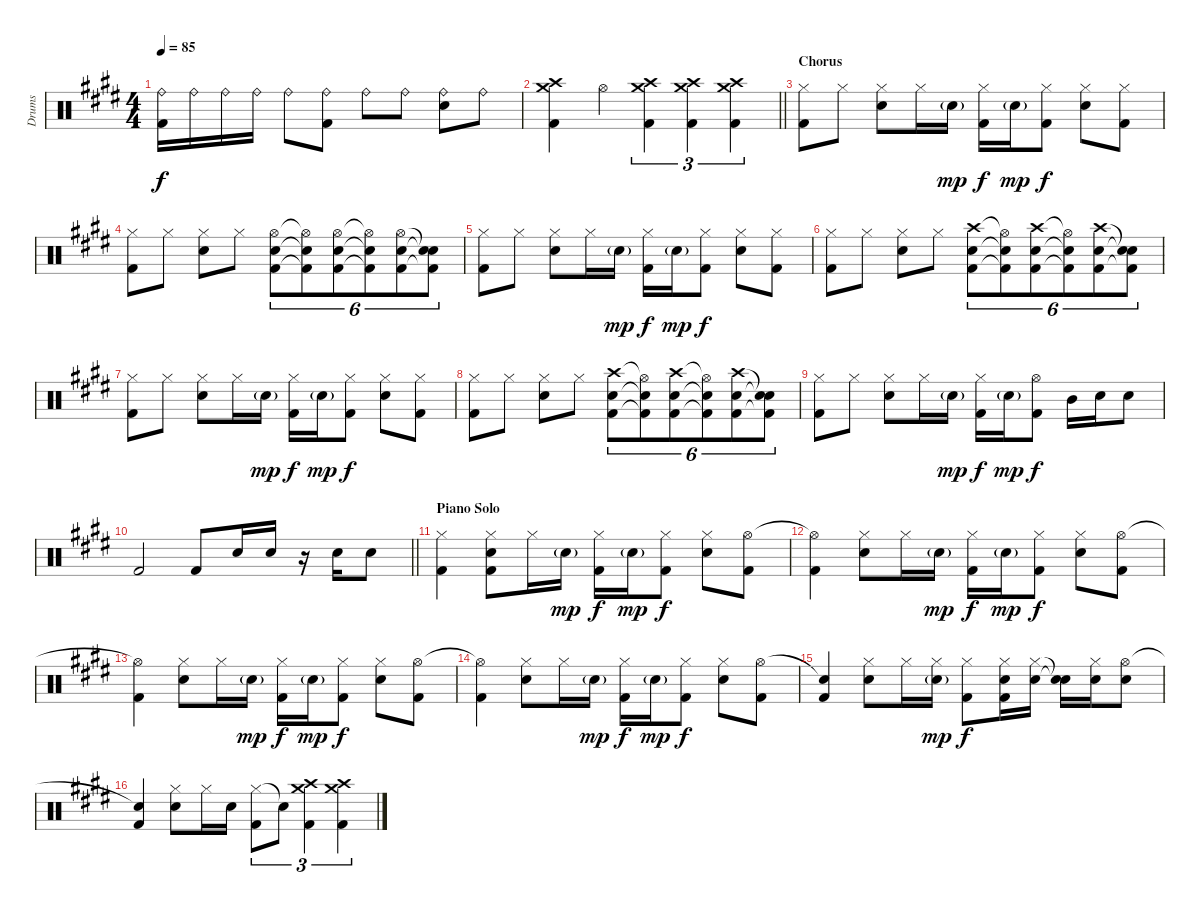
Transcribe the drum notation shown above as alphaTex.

\track ("Drums" "Drums") {instrument percussion}
\staff {score}
\articulation defaults
\ts (4 4)
\tempo 85
\clef neutral
\ks e
("Ride (bell)" "Kick (hit) 2").16{dy f} "Ride (bell)".16 "Ride (bell)".16 "Ride (bell)".16 "Ride (bell)".8 ("Ride (bell)" "Kick (hit) 2").8 "Ride (bell)".8 "Ride (bell)".8 ("Ride (bell)" "Snare (hit) 2").8 "Ride (bell)".8 |
\barLineRight lightlight
("Crash high (hit)" "Crash medium (hit)" "Kick (hit) 2").4 "Hi-Hat (open)".4 ("Crash high (hit)" "Crash medium (hit)" "Kick (hit) 2").4{tu (3 2)} ("Crash high (hit)" "Crash medium (hit)" "Kick (hit) 2").4{tu (3 2)} ("Crash high (hit)" "Crash medium (hit)" "Kick (hit) 2").4{tu (3 2)} |
\section ("" "Chorus")
("Hi-Hat (closed)" "Kick (hit) 2").8 "Hi-Hat (closed)".8 ("Hi-Hat (closed)" "Snare (hit) 2").8 "Hi-Hat (closed)".16 "Snare (hit) 2"{g}.16{dy mp} ("Hi-Hat (closed)" "Kick (hit) 2").16{dy f} "Snare (hit) 2"{g}.16{dy mp} ("Hi-Hat (closed)" "Kick (hit) 2").8{dy f} ("Hi-Hat (closed)" "Snare (hit) 2").8 ("Hi-Hat (closed)" "Kick (hit) 2").8 |
("Hi-Hat (closed)" "Kick (hit) 2").8 "Hi-Hat (closed)".8 ("Hi-Hat (closed)" "Snare (hit) 2").8 "Hi-Hat (closed)".8 ("Hi-Hat (open)" "Snare (hit) 2" "Kick (hit) 2").8{tu (6 4)} ("Hi-Hat (open)"{t} "Snare (hit) 2"{t} "Kick (hit) 2"{t}).8{tu (6 4)} ("Hi-Hat (open)" "Snare (hit) 2" "Kick (hit) 2").8{tu (6 4)} ("Hi-Hat (open)"{t} "Snare (hit) 2"{t} "Kick (hit) 2"{t}).8{tu (6 4)} ("Hi-Hat (open)" "Snare (hit) 2" "Kick (hit) 2").8{tu (6 4)} ("Snare (hit)"{t} "Snare (hit)"{t} "Kick (hit) 2"{t}).8{tu (6 4)} |
("Hi-Hat (closed)" "Kick (hit) 2").8 "Hi-Hat (closed)".8 ("Hi-Hat (closed)" "Snare (hit) 2").8 "Hi-Hat (closed)".16 "Snare (hit) 2"{g}.16{dy mp} ("Hi-Hat (closed)" "Kick (hit) 2").16{dy f} "Snare (hit) 2"{g}.16{dy mp} ("Hi-Hat (closed)" "Kick (hit) 2").8{dy f} ("Hi-Hat (closed)" "Snare (hit) 2").8 ("Hi-Hat (closed)" "Kick (hit) 2").8 |
("Hi-Hat (closed)" "Kick (hit) 2").8 "Hi-Hat (closed)".8 ("Hi-Hat (closed)" "Snare (hit) 2").8 "Hi-Hat (closed)".8 ("Crash high (hit)" "Snare (hit) 2" "Kick (hit) 2").8{tu (6 4)} ("Hi-Hat (open)"{t} "Snare (hit) 2"{t} "Kick (hit) 2"{t}).8{tu (6 4)} ("Crash high (hit)" "Snare (hit) 2" "Kick (hit) 2").8{tu (6 4)} ("Hi-Hat (open)"{t} "Snare (hit) 2"{t} "Kick (hit) 2"{t}).8{tu (6 4)} ("Crash high (hit)" "Snare (hit) 2" "Kick (hit) 2").8{tu (6 4)} ("Snare (hit)"{t} "Snare (hit)"{t} "Kick (hit) 2"{t}).8{tu (6 4)} |
("Hi-Hat (closed)" "Kick (hit) 2").8 "Hi-Hat (closed)".8 ("Hi-Hat (closed)" "Snare (hit) 2").8 "Hi-Hat (closed)".16 "Snare (hit) 2"{g}.16{dy mp} ("Hi-Hat (closed)" "Kick (hit) 2").16{dy f} "Snare (hit) 2"{g}.16{dy mp} ("Hi-Hat (closed)" "Kick (hit) 2").8{dy f} ("Hi-Hat (closed)" "Snare (hit) 2").8 ("Hi-Hat (closed)" "Kick (hit) 2").8 |
("Hi-Hat (closed)" "Kick (hit) 2").8 "Hi-Hat (closed)".8 ("Hi-Hat (closed)" "Snare (hit) 2").8 "Hi-Hat (closed)".8 ("Crash high (hit)" "Snare (hit) 2" "Kick (hit) 2").8{tu (6 4)} ("Hi-Hat (open)"{t} "Snare (hit) 2"{t} "Kick (hit) 2"{t}).8{tu (6 4)} ("Crash high (hit)" "Snare (hit) 2" "Kick (hit) 2").8{tu (6 4)} ("Hi-Hat (open)"{t} "Snare (hit) 2"{t} "Kick (hit) 2"{t}).8{tu (6 4)} ("Crash high (hit)" "Snare (hit) 2" "Kick (hit) 2").8{tu (6 4)} ("Snare (hit)"{t} "Snare (hit)"{t} "Kick (hit) 2"{t}).8{tu (6 4)} |
("Hi-Hat (closed)" "Kick (hit) 2").8 "Hi-Hat (closed)".8 ("Hi-Hat (closed)" "Snare (hit) 2").8 "Hi-Hat (closed)".16 "Snare (hit) 2"{g}.16{dy mp} ("Hi-Hat (closed)" "Kick (hit) 2").16{dy f} "Snare (hit) 2"{g}.16{dy mp} ("Hi-Hat (open)" "Kick (hit) 2").8{dy f} "Mid Tom (hit)".16 "Snare (hit) 2".16 "Snare (hit) 2".8 |
\barLineRight lightlight "Kick (hit) 2".2 "Kick (hit) 2".8 "Snare (hit) 2".16 "Snare (hit) 2".16
r.16 "Snare (hit) 2".16 "Snare (hit) 2".8 |
\section ("" "Piano Solo")
("Hi-Hat (closed)" "Kick (hit) 2").4 ("Hi-Hat (closed)" "Snare (hit) 2" "Kick (hit) 2").8 "Hi-Hat (closed)".16 "Snare (hit) 2"{g}.16{dy mp} ("Hi-Hat (closed)" "Kick (hit) 2").16{dy f} "Snare (hit) 2"{g}.16{dy mp} ("Hi-Hat (closed)" "Kick (hit) 2").8{dy f} ("Hi-Hat (closed)" "Snare (hit) 2").8 ("Hi-Hat (open)" "Kick (hit) 2").8 |
("Hi-Hat (open)"{t} "Kick (hit) 2").4 ("Hi-Hat (closed)" "Snare (hit) 2").8 "Hi-Hat (closed)".16 "Snare (hit) 2"{g}.16{dy mp} ("Hi-Hat (closed)" "Kick (hit) 2").16{dy f} "Snare (hit) 2"{g}.16{dy mp} ("Hi-Hat (closed)" "Kick (hit) 2").8{dy f} ("Hi-Hat (closed)" "Snare (hit) 2").8 ("Hi-Hat (open)" "Kick (hit) 2").8 |
("Hi-Hat (open)"{t} "Kick (hit) 2").4 ("Hi-Hat (closed)" "Snare (hit) 2").8 "Hi-Hat (closed)".16 "Snare (hit) 2"{g}.16{dy mp} ("Hi-Hat (closed)" "Kick (hit) 2").16{dy f} "Snare (hit) 2"{g}.16{dy mp} ("Hi-Hat (closed)" "Kick (hit) 2").8{dy f} ("Hi-Hat (closed)" "Snare (hit) 2").8 ("Hi-Hat (open)" "Kick (hit) 2").8 |
("Hi-Hat (open)"{t} "Kick (hit) 2").4 ("Hi-Hat (closed)" "Snare (hit) 2").8 "Hi-Hat (closed)".16 "Snare (hit) 2"{g}.16{dy mp} ("Hi-Hat (closed)" "Kick (hit) 2").16{dy f} "Snare (hit) 2"{g}.16{dy mp} ("Hi-Hat (closed)" "Kick (hit) 2").8{dy f} ("Hi-Hat (closed)" "Snare (hit) 2").8 ("Hi-Hat (open)" "Kick (hit) 2").8 |
("Snare (hit)"{t} "Kick (hit) 2").4 ("Hi-Hat (closed)" "Snare (hit) 2").8 "Hi-Hat (closed)".16 ("Hi-Hat (closed)" "Snare (hit) 2"{g}).16{dy mp} ("Hi-Hat (closed)" "Kick (hit) 2").8{dy f} ("Hi-Hat (closed)" "Snare (hit) 2" "Kick (hit) 2").16 ("Hi-Hat (closed)" "Snare (hit) 2").16 ("Snare (hit)"{t} "Snare (hit)"{t}).16 ("Hi-Hat (closed)" "Snare (hit) 2").16 ("Hi-Hat (open)" "Snare (hit) 2").8 |
("Snare (hit)"{t} "Kick (hit) 2").4 ("Hi-Hat (closed)" "Snare (hit) 2").8 "Hi-Hat (closed)".16 "Snare (hit) 2".16 ("Hi-Hat (closed)" "Kick (hit) 2").8{tu (3 2)} "Snare (hit) 2"{t}.8{tu (3 2)} ("Crash high (hit)" "Crash medium (hit)" "Kick (hit) 2").4{tu (3 2)} ("Crash high (hit)" "Crash medium (hit)" "Kick (hit) 2").4{tu (3 2)}
